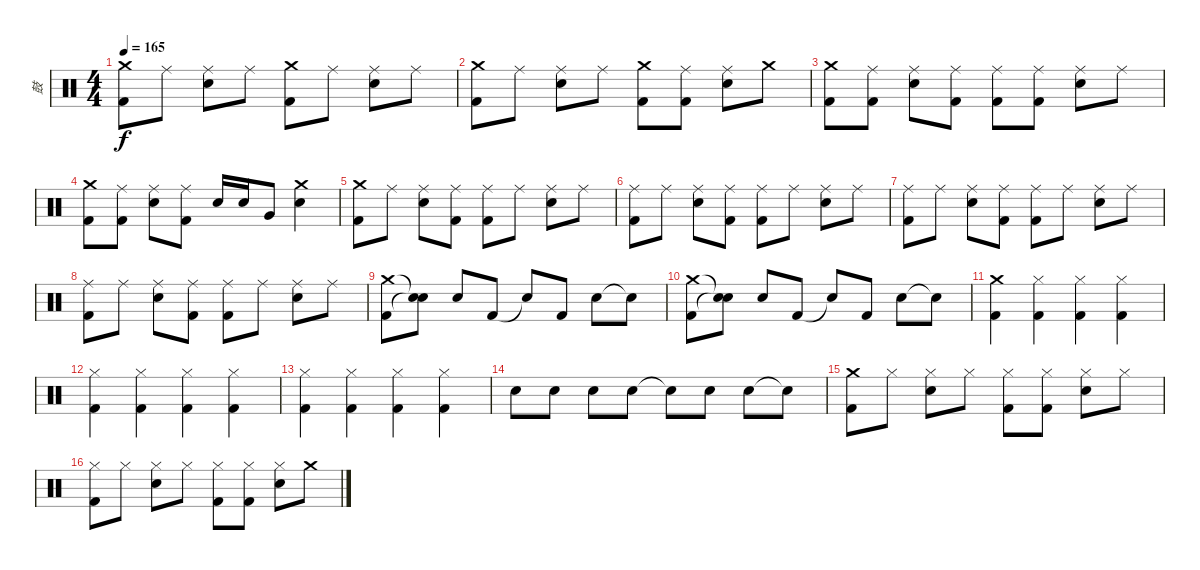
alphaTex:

\track ("鼓" "鼓") {instrument percussion}
\staff {score}
\articulation defaults
\ts (4 4)
\tempo 165
\clef neutral
\ks c
("Crash medium (hit)" "Kick (hit) 2").8{dy f} "Ride (middle)".8 ("Ride (middle)" "Snare (hit) 2").8 "Ride (middle)".8 ("Crash medium (hit)" "Kick (hit) 2").8 "Ride (middle)".8 ("Ride (middle)" "Snare (hit) 2").8 "Ride (middle)".8 |
("Crash medium (hit)" "Kick (hit) 2").8 "Ride (middle)".8 ("Ride (middle)" "Snare (hit) 2").8 "Ride (middle)".8 ("Crash medium (hit)" "Kick (hit) 2").8 ("Ride (middle)" "Kick (hit) 2").8 ("Ride (middle)" "Snare (hit) 2").8 "Crash medium (hit)".8 |
("Crash medium (hit)" "Kick (hit) 2").8 ("Ride (middle)" "Kick (hit) 2").8 ("Ride (middle)" "Snare (hit) 2").8 ("Ride (middle)" "Kick (hit) 2").8 ("Ride (middle)" "Kick (hit) 2").8 ("Ride (middle)" "Kick (hit) 2").8 ("Ride (middle)" "Snare (hit) 2").8 "Ride (middle)".8 |
("Crash medium (hit)" "Kick (hit) 2").8 ("Ride (middle)" "Kick (hit) 2").8 ("Ride (middle)" "Snare (hit) 2").8 ("Ride (middle)" "Kick (hit) 2").8 "Snare (hit) 2".16 "Snare (hit) 2".16 "Very Low Tom (hit)".8 ("Crash medium (hit)" "Snare (hit) 2").4 |
("Crash medium (hit)" "Kick (hit) 2").8 "Ride (middle)".8 ("Ride (middle)" "Snare (hit) 2").8 ("Ride (middle)" "Kick (hit) 2").8 ("Ride (middle)" "Kick (hit) 2").8 "Ride (middle)".8 ("Ride (middle)" "Snare (hit) 2").8 "Ride (middle)".8 |
("Ride (middle)" "Kick (hit) 2").8 "Ride (middle)".8 ("Ride (middle)" "Snare (hit) 2").8 ("Ride (middle)" "Kick (hit) 2").8 ("Ride (middle)" "Kick (hit) 2").8 "Ride (middle)".8 ("Ride (middle)" "Snare (hit) 2").8 "Ride (middle)".8 |
("Ride (middle)" "Kick (hit) 2").8 "Ride (middle)".8 ("Ride (middle)" "Snare (hit) 2").8 ("Ride (middle)" "Kick (hit) 2").8 ("Ride (middle)" "Kick (hit) 2").8 "Ride (middle)".8 ("Ride (middle)" "Snare (hit) 2").8 "Ride (middle)".8 |
("Ride (middle)" "Kick (hit) 2").8 "Ride (middle)".8 ("Ride (middle)" "Snare (hit) 2").8 ("Ride (middle)" "Kick (hit) 2").8 ("Ride (middle)" "Kick (hit) 2").8 "Ride (middle)".8 ("Ride (middle)" "Snare (hit) 2").8 "Ride (middle)".8 |
("Crash medium (hit)" "Kick (hit) 2").8 ("Snare (hit)"{t} "Snare (hit)"{t}).8 "Snare (hit) 2".8 "Kick (hit) 2".8 "Snare (hit)"{t}.8 "Kick (hit) 2".8 "Snare (hit) 2".8 "Snare (hit)"{t}.8 |
("Crash medium (hit)" "Kick (hit) 2").8 ("Snare (hit)"{t} "Snare (hit)"{t}).8 "Snare (hit) 2".8 "Kick (hit) 2".8 "Snare (hit)"{t}.8 "Kick (hit) 2".8 "Snare (hit) 2".8 "Snare (hit)"{t}.8 |
("Crash medium (hit)" "Kick (hit) 2").4 ("Hi-Hat (closed)" "Kick (hit) 2").4 ("Hi-Hat (closed)" "Kick (hit) 2").4 ("Hi-Hat (closed)" "Kick (hit) 2").4 |
("Hi-Hat (closed)" "Kick (hit) 2").4 ("Hi-Hat (closed)" "Kick (hit) 2").4 ("Hi-Hat (closed)" "Kick (hit) 2").4 ("Hi-Hat (closed)" "Kick (hit) 2").4 |
("Hi-Hat (closed)" "Kick (hit) 2").4 ("Hi-Hat (closed)" "Kick (hit) 2").4 ("Hi-Hat (closed)" "Kick (hit) 2").4 ("Hi-Hat (closed)" "Kick (hit) 2").4 |
"Snare (hit) 2".8 "Snare (hit) 2".8 "Snare (hit) 2".8 "Snare (hit) 2".8 "Snare (hit)"{t}.8 "Snare (hit) 2".8 "Snare (hit) 2".8 "Snare (hit)"{t}.8 |
("Crash medium (hit)" "Kick (hit) 2").8 "Hi-Hat (closed)".8 ("Hi-Hat (closed)" "Snare (hit) 2").8 "Hi-Hat (closed)".8 ("Hi-Hat (closed)" "Kick (hit) 2").8 ("Hi-Hat (closed)" "Kick (hit) 2").8 ("Hi-Hat (closed)" "Snare (hit) 2").8 "Hi-Hat (closed)".8 |
("Hi-Hat (closed)" "Kick (hit) 2").8 "Hi-Hat (closed)".8 ("Hi-Hat (closed)" "Snare (hit) 2").8 "Hi-Hat (closed)".8 ("Hi-Hat (closed)" "Kick (hit) 2").8 ("Hi-Hat (closed)" "Kick (hit) 2").8 ("Hi-Hat (closed)" "Snare (hit) 2").8 "Crash medium (hit)".8
